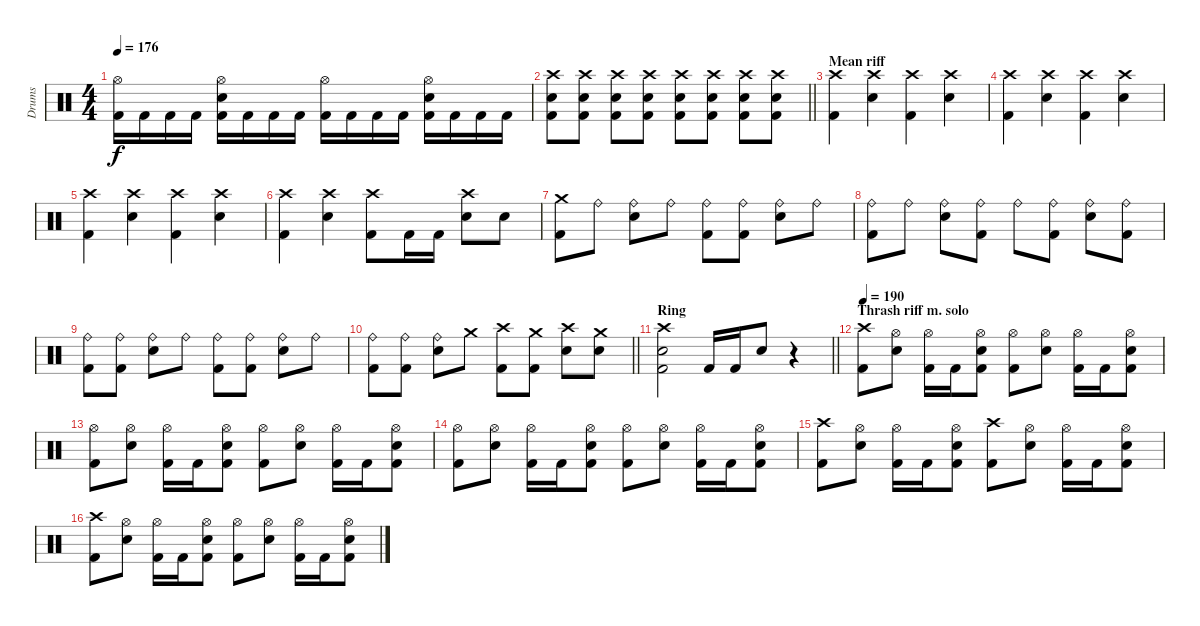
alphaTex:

\track ("Drums" "Drums") {instrument percussion}
\staff {score}
\articulation defaults
\ts (4 4)
\tempo 176
\clef neutral
\ks c
("Hi-Hat (open)" "Kick (hit) 2").16{dy f} "Kick (hit) 2".16 "Kick (hit) 2".16 "Kick (hit) 2".16 ("Hi-Hat (open)" "Snare (hit) 2" "Kick (hit) 2").16 "Kick (hit) 2".16 "Kick (hit) 2".16 "Kick (hit) 2".16 ("Hi-Hat (open)" "Kick (hit) 2").16 "Kick (hit) 2".16 "Kick (hit) 2".16 "Kick (hit) 2".16 ("Hi-Hat (open)" "Snare (hit) 2" "Kick (hit) 2").16 "Kick (hit) 2".16 "Kick (hit) 2".16 "Kick (hit) 2".16 |
\barLineRight lightlight
("Crash high (hit)" "Snare (hit) 2" "Kick (hit) 2").8{volume 8} ("Crash high (hit)" "Snare (hit) 2" "Kick (hit) 2").8{volume 9} ("Crash high (hit)" "Snare (hit) 2" "Kick (hit) 2").8{volume 10} ("Crash high (hit)" "Snare (hit) 2" "Kick (hit) 2").8{volume 11} ("Crash high (hit)" "Snare (hit) 2" "Kick (hit) 2").8{volume 12} ("Crash high (hit)" "Snare (hit) 2" "Kick (hit) 2").8{volume 13} ("Crash high (hit)" "Snare (hit) 2" "Kick (hit) 2").8{volume 14} ("Crash high (hit)" "Snare (hit) 2" "Kick (hit) 2").8{volume 15} |
\section ("" "Mean riff")
("Crash high (hit)" "Kick (hit) 2").4 ("Crash high (hit)" "Snare (hit) 2").4 ("Crash high (hit)" "Kick (hit) 2").4 ("Crash high (hit)" "Snare (hit) 2").4 |
("Crash high (hit)" "Kick (hit) 2").4 ("Crash high (hit)" "Snare (hit) 2").4 ("Crash high (hit)" "Kick (hit) 2").4 ("Crash high (hit)" "Snare (hit) 2").4 |
("Crash high (hit)" "Kick (hit) 2").4 ("Crash high (hit)" "Snare (hit) 2").4 ("Crash high (hit)" "Kick (hit) 2").4 ("Crash high (hit)" "Snare (hit) 2").4 |
("Crash high (hit)" "Kick (hit) 2").4 ("Crash high (hit)" "Snare (hit) 2").4 ("Crash high (hit)" "Kick (hit) 2").8 "Kick (hit) 2".16 "Kick (hit) 2".16 ("Crash high (hit)" "Snare (hit) 2").8 "Snare (hit) 2".8 |
("Crash medium (hit)" "Kick (hit) 2").8 "Ride (bell)".8 ("Ride (bell)" "Snare (hit) 2").8 "Ride (bell)".8 ("Ride (bell)" "Kick (hit) 2").8 ("Ride (bell)" "Kick (hit) 2").8 ("Ride (bell)" "Snare (hit) 2").8 "Ride (bell)".8 |
("Ride (bell)" "Kick (hit) 2").8 "Ride (bell)".8 ("Ride (bell)" "Snare (hit) 2").8 ("Ride (bell)" "Kick (hit) 2").8 "Ride (bell)".8 ("Ride (bell)" "Kick (hit) 2").8 ("Ride (bell)" "Snare (hit) 2").8 ("Ride (bell)" "Kick (hit) 2").8 |
("Ride (bell)" "Kick (hit) 2").8 ("Ride (bell)" "Kick (hit) 2").8 ("Ride (bell)" "Snare (hit) 2").8 "Ride (bell)".8 ("Ride (bell)" "Kick (hit) 2").8 ("Ride (bell)" "Kick (hit) 2").8 ("Ride (bell)" "Snare (hit) 2").8 "Ride (bell)".8 |
\barLineRight lightlight
("Ride (bell)" "Kick (hit) 2").8 ("Ride (bell)" "Kick (hit) 2").8 ("Ride (bell)" "Snare (hit) 2").8 "Crash medium (hit)".8 ("Crash high (hit)" "Kick (hit) 2").8 ("Crash medium (hit)" "Kick (hit) 2").8 ("Crash high (hit)" "Snare (hit) 2").8 ("Crash medium (hit)" "Snare (hit) 2").8 |
\section ("" "Ring")
\barLineRight lightlight
("Crash high (hit)" "Snare (hit) 2" "Kick (hit) 2").2{volume 16} "Kick (hit) 2".16 "Kick (hit) 2".16 "Snare (hit) 2".8 r.4 |
\section ("" "Thrash riff m. solo")
\tempo 190
("Crash high (hit)" "Kick (hit) 2").8 ("Hi-Hat (open)" "Snare (hit) 2").8 ("Hi-Hat (open)" "Kick (hit) 2").16 "Kick (hit) 2".16 ("Hi-Hat (open)" "Snare (hit) 2" "Kick (hit) 2").8 ("Hi-Hat (open)" "Kick (hit) 2").8 ("Hi-Hat (open)" "Snare (hit) 2").8 ("Hi-Hat (open)" "Kick (hit) 2").16 "Kick (hit) 2".16 ("Hi-Hat (open)" "Snare (hit) 2" "Kick (hit) 2").8 |
("Hi-Hat (open)" "Kick (hit) 2").8 ("Hi-Hat (open)" "Snare (hit) 2").8 ("Hi-Hat (open)" "Kick (hit) 2").16 "Kick (hit) 2".16 ("Hi-Hat (open)" "Snare (hit) 2" "Kick (hit) 2").8 ("Hi-Hat (open)" "Kick (hit) 2").8 ("Hi-Hat (open)" "Snare (hit) 2").8 ("Hi-Hat (open)" "Kick (hit) 2").16 "Kick (hit) 2".16 ("Hi-Hat (open)" "Snare (hit) 2" "Kick (hit) 2").8 |
("Hi-Hat (open)" "Kick (hit) 2").8 ("Hi-Hat (open)" "Snare (hit) 2").8 ("Hi-Hat (open)" "Kick (hit) 2").16 "Kick (hit) 2".16 ("Hi-Hat (open)" "Snare (hit) 2" "Kick (hit) 2").8 ("Hi-Hat (open)" "Kick (hit) 2").8 ("Hi-Hat (open)" "Snare (hit) 2").8 ("Hi-Hat (open)" "Kick (hit) 2").16 "Kick (hit) 2".16 ("Hi-Hat (open)" "Snare (hit) 2" "Kick (hit) 2").8 |
("Crash high (hit)" "Kick (hit) 2").8 ("Hi-Hat (open)" "Snare (hit) 2").8 ("Hi-Hat (open)" "Kick (hit) 2").16 "Kick (hit) 2".16 ("Hi-Hat (open)" "Snare (hit) 2" "Kick (hit) 2").8 ("Crash high (hit)" "Kick (hit) 2").8 ("Hi-Hat (open)" "Snare (hit) 2").8 ("Hi-Hat (open)" "Kick (hit) 2").16 "Kick (hit) 2".16 ("Hi-Hat (open)" "Snare (hit) 2" "Kick (hit) 2").8 |
("Crash high (hit)" "Kick (hit) 2").8 ("Hi-Hat (open)" "Snare (hit) 2").8 ("Hi-Hat (open)" "Kick (hit) 2").16 "Kick (hit) 2".16 ("Hi-Hat (open)" "Snare (hit) 2" "Kick (hit) 2").8 ("Hi-Hat (open)" "Kick (hit) 2").8 ("Hi-Hat (open)" "Snare (hit) 2").8 ("Hi-Hat (open)" "Kick (hit) 2").16 "Kick (hit) 2".16 ("Hi-Hat (open)" "Snare (hit) 2" "Kick (hit) 2").8
